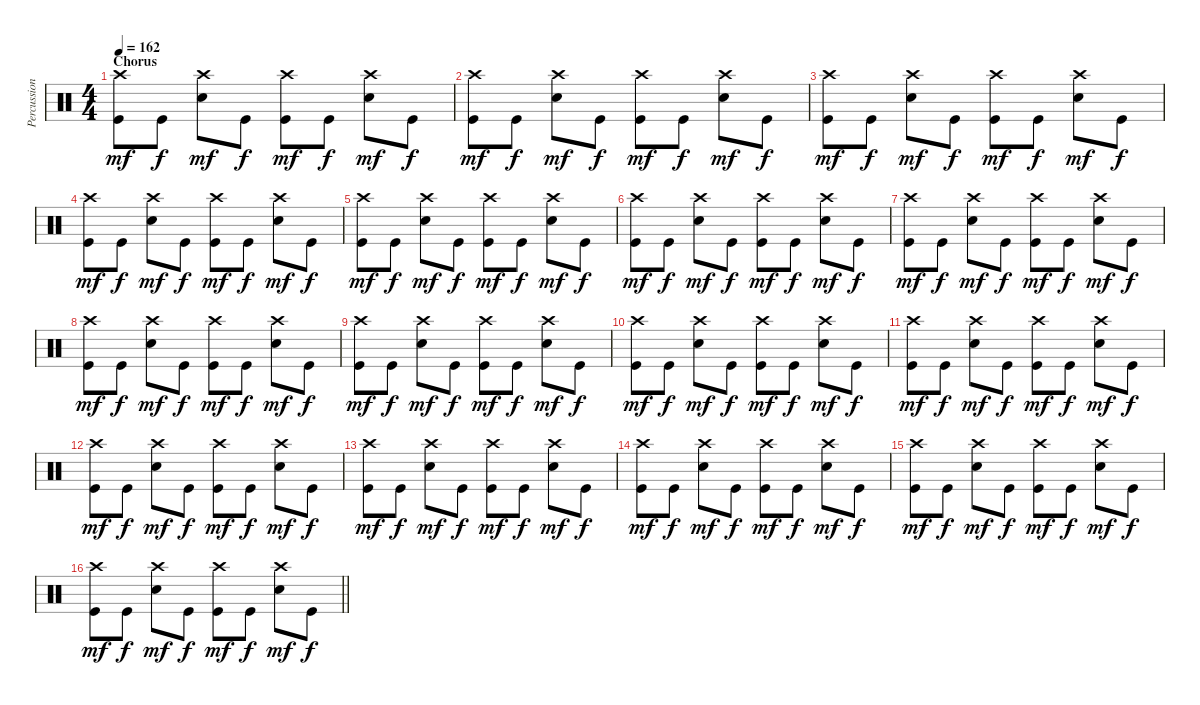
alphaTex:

\track ("Percussions" "Percussion") {instrument percussion}
\staff {score}
\articulation defaults
\ts (4 4)
\section ("" "Chorus")
\tempo 162
\clef neutral
\ks c
("Crash high (hit)" "Kick (hit)").8{dy mf} "Kick (hit)".8{dy f} ("Crash high (hit)" "Electric Snare (hit)").8{dy mf} "Kick (hit)".8{dy f} ("Crash high (hit)" "Kick (hit)").8{dy mf} "Kick (hit)".8{dy f} ("Crash high (hit)" "Electric Snare (hit)").8{dy mf} "Kick (hit)".8{dy f} |
("Crash high (hit)" "Kick (hit)").8{dy mf} "Kick (hit)".8{dy f} ("Crash high (hit)" "Electric Snare (hit)").8{dy mf} "Kick (hit)".8{dy f} ("Crash high (hit)" "Kick (hit)").8{dy mf} "Kick (hit)".8{dy f} ("Crash high (hit)" "Electric Snare (hit)").8{dy mf} "Kick (hit)".8{dy f} |
("Crash high (hit)" "Kick (hit)").8{dy mf} "Kick (hit)".8{dy f} ("Crash high (hit)" "Electric Snare (hit)").8{dy mf} "Kick (hit)".8{dy f} ("Crash high (hit)" "Kick (hit)").8{dy mf} "Kick (hit)".8{dy f} ("Crash high (hit)" "Electric Snare (hit)").8{dy mf} "Kick (hit)".8{dy f} |
("Crash high (hit)" "Kick (hit)").8{dy mf} "Kick (hit)".8{dy f} ("Crash high (hit)" "Electric Snare (hit)").8{dy mf} "Kick (hit)".8{dy f} ("Crash high (hit)" "Kick (hit)").8{dy mf} "Kick (hit)".8{dy f} ("Crash high (hit)" "Electric Snare (hit)").8{dy mf} "Kick (hit)".8{dy f} |
("Crash high (hit)" "Kick (hit)").8{dy mf} "Kick (hit)".8{dy f} ("Crash high (hit)" "Electric Snare (hit)").8{dy mf} "Kick (hit)".8{dy f} ("Crash high (hit)" "Kick (hit)").8{dy mf} "Kick (hit)".8{dy f} ("Crash high (hit)" "Electric Snare (hit)").8{dy mf} "Kick (hit)".8{dy f} |
("Crash high (hit)" "Kick (hit)").8{dy mf} "Kick (hit)".8{dy f} ("Crash high (hit)" "Electric Snare (hit)").8{dy mf} "Kick (hit)".8{dy f} ("Crash high (hit)" "Kick (hit)").8{dy mf} "Kick (hit)".8{dy f} ("Crash high (hit)" "Electric Snare (hit)").8{dy mf} "Kick (hit)".8{dy f} |
("Crash high (hit)" "Kick (hit)").8{dy mf} "Kick (hit)".8{dy f} ("Crash high (hit)" "Electric Snare (hit)").8{dy mf} "Kick (hit)".8{dy f} ("Crash high (hit)" "Kick (hit)").8{dy mf} "Kick (hit)".8{dy f} ("Crash high (hit)" "Electric Snare (hit)").8{dy mf} "Kick (hit)".8{dy f} |
("Crash high (hit)" "Kick (hit)").8{dy mf} "Kick (hit)".8{dy f} ("Crash high (hit)" "Electric Snare (hit)").8{dy mf} "Kick (hit)".8{dy f} ("Crash high (hit)" "Kick (hit)").8{dy mf} "Kick (hit)".8{dy f} ("Crash high (hit)" "Electric Snare (hit)").8{dy mf} "Kick (hit)".8{dy f} |
("Crash high (hit)" "Kick (hit)").8{dy mf} "Kick (hit)".8{dy f} ("Crash high (hit)" "Electric Snare (hit)").8{dy mf} "Kick (hit)".8{dy f} ("Crash high (hit)" "Kick (hit)").8{dy mf} "Kick (hit)".8{dy f} ("Crash high (hit)" "Electric Snare (hit)").8{dy mf} "Kick (hit)".8{dy f} |
("Crash high (hit)" "Kick (hit)").8{dy mf} "Kick (hit)".8{dy f} ("Crash high (hit)" "Electric Snare (hit)").8{dy mf} "Kick (hit)".8{dy f} ("Crash high (hit)" "Kick (hit)").8{dy mf} "Kick (hit)".8{dy f} ("Crash high (hit)" "Electric Snare (hit)").8{dy mf} "Kick (hit)".8{dy f} |
("Crash high (hit)" "Kick (hit)").8{dy mf} "Kick (hit)".8{dy f} ("Crash high (hit)" "Electric Snare (hit)").8{dy mf} "Kick (hit)".8{dy f} ("Crash high (hit)" "Kick (hit)").8{dy mf} "Kick (hit)".8{dy f} ("Crash high (hit)" "Electric Snare (hit)").8{dy mf} "Kick (hit)".8{dy f} |
("Crash high (hit)" "Kick (hit)").8{dy mf} "Kick (hit)".8{dy f} ("Crash high (hit)" "Electric Snare (hit)").8{dy mf} "Kick (hit)".8{dy f} ("Crash high (hit)" "Kick (hit)").8{dy mf} "Kick (hit)".8{dy f} ("Crash high (hit)" "Electric Snare (hit)").8{dy mf} "Kick (hit)".8{dy f} |
("Crash high (hit)" "Kick (hit)").8{dy mf} "Kick (hit)".8{dy f} ("Crash high (hit)" "Electric Snare (hit)").8{dy mf} "Kick (hit)".8{dy f} ("Crash high (hit)" "Kick (hit)").8{dy mf} "Kick (hit)".8{dy f} ("Crash high (hit)" "Electric Snare (hit)").8{dy mf} "Kick (hit)".8{dy f} |
("Crash high (hit)" "Kick (hit)").8{dy mf} "Kick (hit)".8{dy f} ("Crash high (hit)" "Electric Snare (hit)").8{dy mf} "Kick (hit)".8{dy f} ("Crash high (hit)" "Kick (hit)").8{dy mf} "Kick (hit)".8{dy f} ("Crash high (hit)" "Electric Snare (hit)").8{dy mf} "Kick (hit)".8{dy f} |
("Crash high (hit)" "Kick (hit)").8{dy mf} "Kick (hit)".8{dy f} ("Crash high (hit)" "Electric Snare (hit)").8{dy mf} "Kick (hit)".8{dy f} ("Crash high (hit)" "Kick (hit)").8{dy mf} "Kick (hit)".8{dy f} ("Crash high (hit)" "Electric Snare (hit)").8{dy mf} "Kick (hit)".8{dy f} |
\barLineRight lightlight
("Crash high (hit)" "Kick (hit)").8{dy mf} "Kick (hit)".8{dy f} ("Crash high (hit)" "Electric Snare (hit)").8{dy mf} "Kick (hit)".8{dy f} ("Crash high (hit)" "Kick (hit)").8{dy mf} "Kick (hit)".8{dy f} ("Crash high (hit)" "Electric Snare (hit)").8{dy mf} "Kick (hit)".8{dy f}
